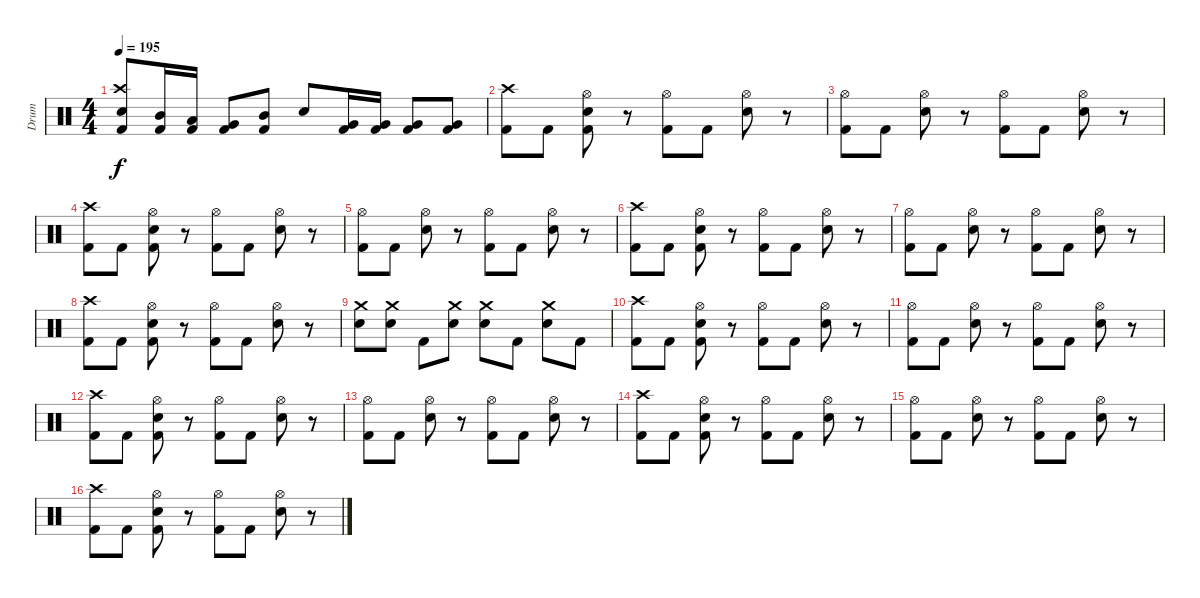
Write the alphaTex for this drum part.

\track ("Drum" "Drum") {instrument percussion}
\staff {score}
\articulation defaults
\ts (4 4)
\tempo 195
\clef neutral
\ks c
("Electric Snare (hit)" "Crash high (hit)" "Kick (hit) 2").8{dy f} ("Mid Tom (hit)" "Kick (hit) 2").16 ("Low Tom (hit)" "Kick (hit) 2").16 ("Very Low Tom (hit)" "Kick (hit) 2").8 ("Mid Tom (hit)" "Kick (hit) 2").8 "Electric Snare (hit)".8 ("Very Low Tom (hit)" "Kick (hit) 2").16 ("Very Low Tom (hit)" "Kick (hit) 2").16 ("Very Low Tom (hit)" "Kick (hit) 2").8 ("Very Low Tom (hit)" "Kick (hit) 2").8 |
("Crash high (hit)" "Kick (hit) 2").8 "Kick (hit) 2".8 ("Electric Snare (hit)" "Hi-Hat (open)" "Kick (hit) 2").8 r.8 ("Hi-Hat (open)" "Kick (hit) 2").8 "Kick (hit) 2".8 ("Electric Snare (hit)" "Hi-Hat (open)").8 r.8 |
("Hi-Hat (open)" "Kick (hit) 2").8 "Kick (hit) 2".8 ("Electric Snare (hit)" "Hi-Hat (open)").8 r.8 ("Hi-Hat (open)" "Kick (hit) 2").8 "Kick (hit) 2".8 ("Electric Snare (hit)" "Hi-Hat (open)").8 r.8 |
("Crash high (hit)" "Kick (hit) 2").8 "Kick (hit) 2".8 ("Electric Snare (hit)" "Hi-Hat (open)" "Kick (hit) 2").8 r.8 ("Hi-Hat (open)" "Kick (hit) 2").8 "Kick (hit) 2".8 ("Electric Snare (hit)" "Hi-Hat (open)").8 r.8 |
("Hi-Hat (open)" "Kick (hit) 2").8 "Kick (hit) 2".8 ("Electric Snare (hit)" "Hi-Hat (open)").8 r.8 ("Hi-Hat (open)" "Kick (hit) 2").8 "Kick (hit) 2".8 ("Electric Snare (hit)" "Hi-Hat (open)").8 r.8 |
("Crash high (hit)" "Kick (hit) 2").8 "Kick (hit) 2".8 ("Electric Snare (hit)" "Hi-Hat (open)" "Kick (hit) 2").8 r.8 ("Hi-Hat (open)" "Kick (hit) 2").8 "Kick (hit) 2".8 ("Electric Snare (hit)" "Hi-Hat (open)").8 r.8 |
("Hi-Hat (open)" "Kick (hit) 2").8 "Kick (hit) 2".8 ("Electric Snare (hit)" "Hi-Hat (open)").8 r.8 ("Hi-Hat (open)" "Kick (hit) 2").8 "Kick (hit) 2".8 ("Electric Snare (hit)" "Hi-Hat (open)").8 r.8 |
("Crash high (hit)" "Kick (hit) 2").8 "Kick (hit) 2".8 ("Electric Snare (hit)" "Hi-Hat (open)" "Kick (hit) 2").8 r.8 ("Hi-Hat (open)" "Kick (hit) 2").8 "Kick (hit) 2".8 ("Electric Snare (hit)" "Hi-Hat (open)").8 r.8 |
("Crash medium (hit)" "Electric Snare (hit)").8 ("Crash medium (hit)" "Electric Snare (hit)").8 "Kick (hit) 2".8 ("Crash medium (hit)" "Electric Snare (hit)").8 ("Crash medium (hit)" "Electric Snare (hit)").8 "Kick (hit) 2".8 ("Crash medium (hit)" "Electric Snare (hit)").8 "Kick (hit) 2".8 |
("Crash high (hit)" "Kick (hit) 2").8 "Kick (hit) 2".8 ("Electric Snare (hit)" "Hi-Hat (open)" "Kick (hit) 2").8 r.8 ("Hi-Hat (open)" "Kick (hit) 2").8 "Kick (hit) 2".8 ("Electric Snare (hit)" "Hi-Hat (open)").8 r.8 |
("Hi-Hat (open)" "Kick (hit) 2").8 "Kick (hit) 2".8 ("Electric Snare (hit)" "Hi-Hat (open)").8 r.8 ("Hi-Hat (open)" "Kick (hit) 2").8 "Kick (hit) 2".8 ("Electric Snare (hit)" "Hi-Hat (open)").8 r.8 |
("Crash high (hit)" "Kick (hit) 2").8 "Kick (hit) 2".8 ("Electric Snare (hit)" "Hi-Hat (open)" "Kick (hit) 2").8 r.8 ("Hi-Hat (open)" "Kick (hit) 2").8 "Kick (hit) 2".8 ("Electric Snare (hit)" "Hi-Hat (open)").8 r.8 |
("Hi-Hat (open)" "Kick (hit) 2").8 "Kick (hit) 2".8 ("Electric Snare (hit)" "Hi-Hat (open)").8 r.8 ("Hi-Hat (open)" "Kick (hit) 2").8 "Kick (hit) 2".8 ("Electric Snare (hit)" "Hi-Hat (open)").8 r.8 |
("Crash high (hit)" "Kick (hit) 2").8 "Kick (hit) 2".8 ("Electric Snare (hit)" "Hi-Hat (open)" "Kick (hit) 2").8 r.8 ("Hi-Hat (open)" "Kick (hit) 2").8 "Kick (hit) 2".8 ("Electric Snare (hit)" "Hi-Hat (open)").8 r.8 |
("Hi-Hat (open)" "Kick (hit) 2").8 "Kick (hit) 2".8 ("Electric Snare (hit)" "Hi-Hat (open)").8 r.8 ("Hi-Hat (open)" "Kick (hit) 2").8 "Kick (hit) 2".8 ("Electric Snare (hit)" "Hi-Hat (open)").8 r.8 |
("Crash high (hit)" "Kick (hit) 2").8 "Kick (hit) 2".8 ("Electric Snare (hit)" "Hi-Hat (open)" "Kick (hit) 2").8 r.8 ("Hi-Hat (open)" "Kick (hit) 2").8 "Kick (hit) 2".8 ("Electric Snare (hit)" "Hi-Hat (open)").8 r.8
